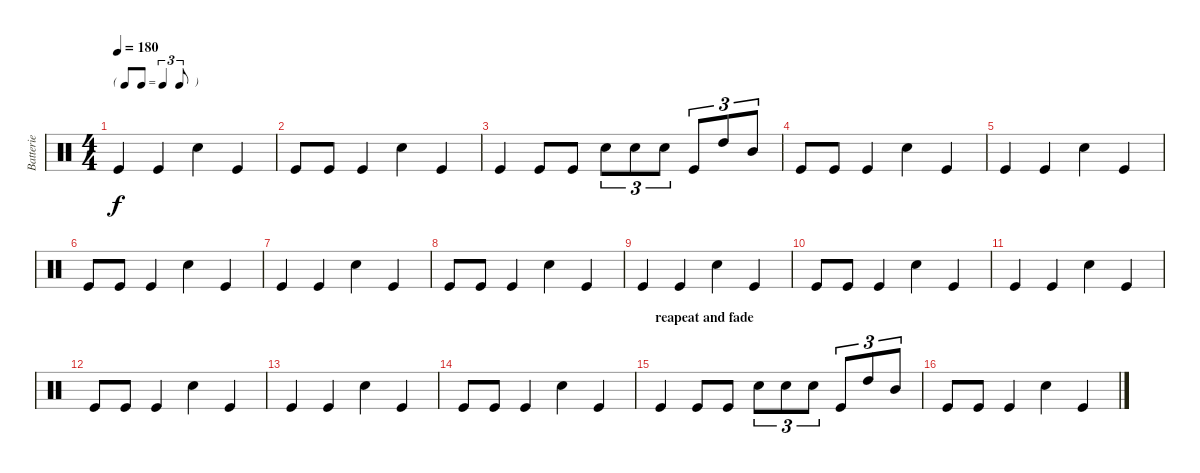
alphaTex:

\track ("Batterie" "Batterie") {instrument percussion}
\staff {score}
\articulation defaults
\ts (4 4)
\tf triplet8th
\tempo 180
\clef neutral
\ks c "Kick (hit)".4{dy f} "Kick (hit)".4 "Electric Snare (hit)".4 "Kick (hit)".4
|
"Kick (hit)".8 "Kick (hit)".8 "Kick (hit)".4 "Electric Snare (hit)".4 "Kick (hit)".4 |
"Kick (hit)".4 "Kick (hit)".8 "Kick (hit)".8 "Electric Snare (hit)".8{tu (3 2)} "Electric Snare (hit)".8{tu (3 2)} "Electric Snare (hit)".8{tu (3 2)} "Kick (hit)".8{tu (3 2)} "High Tom (hit)".8{tu (3 2)} "Mid Tom (hit)".8{tu (3 2)} |
"Kick (hit)".8 "Kick (hit)".8 "Kick (hit)".4 "Electric Snare (hit)".4 "Kick (hit)".4 |
"Kick (hit)".4 "Kick (hit)".4 "Electric Snare (hit)".4 "Kick (hit)".4 |
"Kick (hit)".8 "Kick (hit)".8 "Kick (hit)".4 "Electric Snare (hit)".4 "Kick (hit)".4 |
"Kick (hit)".4 "Kick (hit)".4 "Electric Snare (hit)".4 "Kick (hit)".4 |
"Kick (hit)".8 "Kick (hit)".8 "Kick (hit)".4 "Electric Snare (hit)".4 "Kick (hit)".4 |
"Kick (hit)".4 "Kick (hit)".4 "Electric Snare (hit)".4 "Kick (hit)".4 |
"Kick (hit)".8 "Kick (hit)".8 "Kick (hit)".4 "Electric Snare (hit)".4 "Kick (hit)".4 |
"Kick (hit)".4 "Kick (hit)".4 "Electric Snare (hit)".4 "Kick (hit)".4 |
"Kick (hit)".8 "Kick (hit)".8 "Kick (hit)".4 "Electric Snare (hit)".4 "Kick (hit)".4 |
"Kick (hit)".4 "Kick (hit)".4 "Electric Snare (hit)".4 "Kick (hit)".4 |
"Kick (hit)".8 "Kick (hit)".8 "Kick (hit)".4 "Electric Snare (hit)".4 "Kick (hit)".4 |
\section ("" "reapeat and fade")
"Kick (hit)".4 "Kick (hit)".8 "Kick (hit)".8 "Electric Snare (hit)".8{tu (3 2)} "Electric Snare (hit)".8{tu (3 2)} "Electric Snare (hit)".8{tu (3 2)} "Kick (hit)".8{tu (3 2)} "High Tom (hit)".8{tu (3 2)} "Mid Tom (hit)".8{tu (3 2)} |
"Kick (hit)".8 "Kick (hit)".8 "Kick (hit)".4 "Electric Snare (hit)".4 "Kick (hit)".4
